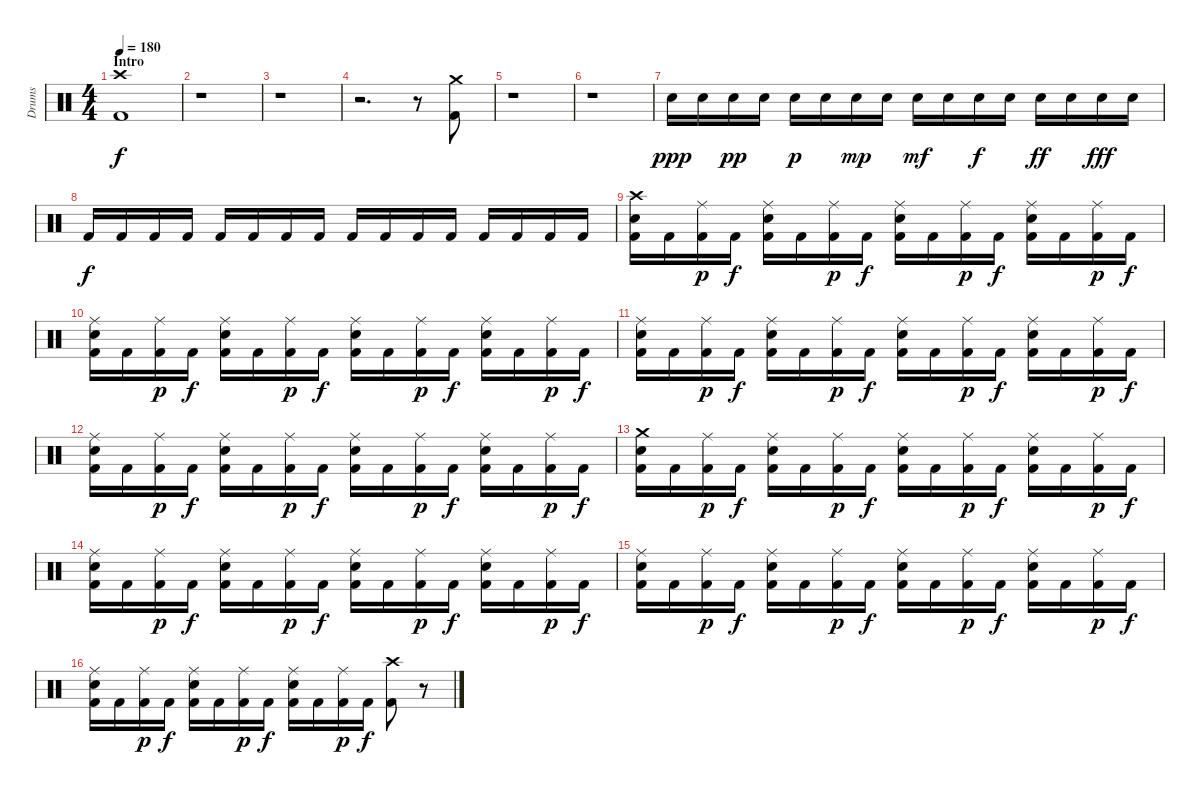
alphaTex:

\track ("Drums" "Drums") {instrument percussion}
\staff {score}
\articulation defaults
\ts (4 4)
\section ("" "Intro")
\tempo 180
\clef neutral
\ks c
("Crash high (hit)" "Kick (hit) 2").1{dy f} |
r.1 |
r.1 |
r.2{d} r.8 ("Crash medium (hit)" "Kick (hit) 2").8 |
r.1 |
r.1 |
"Snare (hit) 2".16{dy ppp} "Snare (hit) 2".16 "Snare (hit) 2".16{dy pp} "Snare (hit) 2".16 "Snare (hit) 2".16{dy p} "Snare (hit) 2".16 "Snare (hit) 2".16{dy mp} "Snare (hit) 2".16 "Snare (hit) 2".16{dy mf} "Snare (hit) 2".16 "Snare (hit) 2".16{dy f} "Snare (hit) 2".16 "Snare (hit) 2".16{dy ff} "Snare (hit) 2".16 "Snare (hit) 2".16{dy fff} "Snare (hit) 2".16 |
"Kick (hit) 2".16{dy f} "Kick (hit) 2".16 "Kick (hit) 2".16 "Kick (hit) 2".16 "Kick (hit) 2".16 "Kick (hit) 2".16 "Kick (hit) 2".16 "Kick (hit) 2".16 "Kick (hit) 2".16 "Kick (hit) 2".16 "Kick (hit) 2".16 "Kick (hit) 2".16 "Kick (hit) 2".16 "Kick (hit) 2".16 "Kick (hit) 2".16 "Kick (hit) 2".16 |
("Crash high (hit)" "Snare (hit) 2" "Kick (hit) 2").16 "Kick (hit) 2".16 ("Ride (middle)" "Kick (hit) 2").16{dy p} "Kick (hit) 2".16{dy f} ("Ride (middle)" "Snare (hit) 2" "Kick (hit) 2").16 "Kick (hit) 2".16 ("Ride (middle)" "Kick (hit) 2").16{dy p} "Kick (hit) 2".16{dy f} ("Ride (middle)" "Snare (hit) 2" "Kick (hit) 2").16 "Kick (hit) 2".16 ("Ride (middle)" "Kick (hit) 2").16{dy p} "Kick (hit) 2".16{dy f} ("Ride (middle)" "Snare (hit) 2" "Kick (hit) 2").16 "Kick (hit) 2".16 ("Ride (middle)" "Kick (hit) 2").16{dy p} "Kick (hit) 2".16{dy f} |
("Ride (middle)" "Snare (hit) 2" "Kick (hit) 2").16 "Kick (hit) 2".16 ("Ride (middle)" "Kick (hit) 2").16{dy p} "Kick (hit) 2".16{dy f} ("Ride (middle)" "Snare (hit) 2" "Kick (hit) 2").16 "Kick (hit) 2".16 ("Ride (middle)" "Kick (hit) 2").16{dy p} "Kick (hit) 2".16{dy f} ("Ride (middle)" "Snare (hit) 2" "Kick (hit) 2").16 "Kick (hit) 2".16 ("Ride (middle)" "Kick (hit) 2").16{dy p} "Kick (hit) 2".16{dy f} ("Ride (middle)" "Snare (hit) 2" "Kick (hit) 2").16 "Kick (hit) 2".16 ("Ride (middle)" "Kick (hit) 2").16{dy p} "Kick (hit) 2".16{dy f} |
("Ride (middle)" "Snare (hit) 2" "Kick (hit) 2").16 "Kick (hit) 2".16 ("Ride (middle)" "Kick (hit) 2").16{dy p} "Kick (hit) 2".16{dy f} ("Ride (middle)" "Snare (hit) 2" "Kick (hit) 2").16 "Kick (hit) 2".16 ("Ride (middle)" "Kick (hit) 2").16{dy p} "Kick (hit) 2".16{dy f} ("Ride (middle)" "Snare (hit) 2" "Kick (hit) 2").16 "Kick (hit) 2".16 ("Ride (middle)" "Kick (hit) 2").16{dy p} "Kick (hit) 2".16{dy f} ("Ride (middle)" "Snare (hit) 2" "Kick (hit) 2").16 "Kick (hit) 2".16 ("Ride (middle)" "Kick (hit) 2").16{dy p} "Kick (hit) 2".16{dy f} |
("Ride (middle)" "Snare (hit) 2" "Kick (hit) 2").16 "Kick (hit) 2".16 ("Ride (middle)" "Kick (hit) 2").16{dy p} "Kick (hit) 2".16{dy f} ("Ride (middle)" "Snare (hit) 2" "Kick (hit) 2").16 "Kick (hit) 2".16 ("Ride (middle)" "Kick (hit) 2").16{dy p} "Kick (hit) 2".16{dy f} ("Ride (middle)" "Snare (hit) 2" "Kick (hit) 2").16 "Kick (hit) 2".16 ("Ride (middle)" "Kick (hit) 2").16{dy p} "Kick (hit) 2".16{dy f} ("Ride (middle)" "Snare (hit) 2" "Kick (hit) 2").16 "Kick (hit) 2".16 ("Ride (middle)" "Kick (hit) 2").16{dy p} "Kick (hit) 2".16{dy f} |
("Crash medium (hit)" "Snare (hit) 2" "Kick (hit) 2").16 "Kick (hit) 2".16 ("Ride (middle)" "Kick (hit) 2").16{dy p} "Kick (hit) 2".16{dy f} ("Ride (middle)" "Snare (hit) 2" "Kick (hit) 2").16 "Kick (hit) 2".16 ("Ride (middle)" "Kick (hit) 2").16{dy p} "Kick (hit) 2".16{dy f} ("Ride (middle)" "Snare (hit) 2" "Kick (hit) 2").16 "Kick (hit) 2".16 ("Ride (middle)" "Kick (hit) 2").16{dy p} "Kick (hit) 2".16{dy f} ("Ride (middle)" "Snare (hit) 2" "Kick (hit) 2").16 "Kick (hit) 2".16 ("Ride (middle)" "Kick (hit) 2").16{dy p} "Kick (hit) 2".16{dy f} |
("Ride (middle)" "Snare (hit) 2" "Kick (hit) 2").16 "Kick (hit) 2".16 ("Ride (middle)" "Kick (hit) 2").16{dy p} "Kick (hit) 2".16{dy f} ("Ride (middle)" "Snare (hit) 2" "Kick (hit) 2").16 "Kick (hit) 2".16 ("Ride (middle)" "Kick (hit) 2").16{dy p} "Kick (hit) 2".16{dy f} ("Ride (middle)" "Snare (hit) 2" "Kick (hit) 2").16 "Kick (hit) 2".16 ("Ride (middle)" "Kick (hit) 2").16{dy p} "Kick (hit) 2".16{dy f} ("Ride (middle)" "Snare (hit) 2" "Kick (hit) 2").16 "Kick (hit) 2".16 ("Ride (middle)" "Kick (hit) 2").16{dy p} "Kick (hit) 2".16{dy f} |
("Ride (middle)" "Snare (hit) 2" "Kick (hit) 2").16 "Kick (hit) 2".16 ("Ride (middle)" "Kick (hit) 2").16{dy p} "Kick (hit) 2".16{dy f} ("Ride (middle)" "Snare (hit) 2" "Kick (hit) 2").16 "Kick (hit) 2".16 ("Ride (middle)" "Kick (hit) 2").16{dy p} "Kick (hit) 2".16{dy f} ("Ride (middle)" "Snare (hit) 2" "Kick (hit) 2").16 "Kick (hit) 2".16 ("Ride (middle)" "Kick (hit) 2").16{dy p} "Kick (hit) 2".16{dy f} ("Ride (middle)" "Snare (hit) 2" "Kick (hit) 2").16 "Kick (hit) 2".16 ("Ride (middle)" "Kick (hit) 2").16{dy p} "Kick (hit) 2".16{dy f} |
("Ride (middle)" "Snare (hit) 2" "Kick (hit) 2").16 "Kick (hit) 2".16 ("Ride (middle)" "Kick (hit) 2").16{dy p} "Kick (hit) 2".16{dy f} ("Ride (middle)" "Snare (hit) 2" "Kick (hit) 2").16 "Kick (hit) 2".16 ("Ride (middle)" "Kick (hit) 2").16{dy p} "Kick (hit) 2".16{dy f} ("Ride (middle)" "Snare (hit) 2" "Kick (hit) 2").16 "Kick (hit) 2".16 ("Ride (middle)" "Kick (hit) 2").16{dy p} "Kick (hit) 2".16{dy f} ("Crash high (hit)" "Kick (hit) 2").8 r.8
